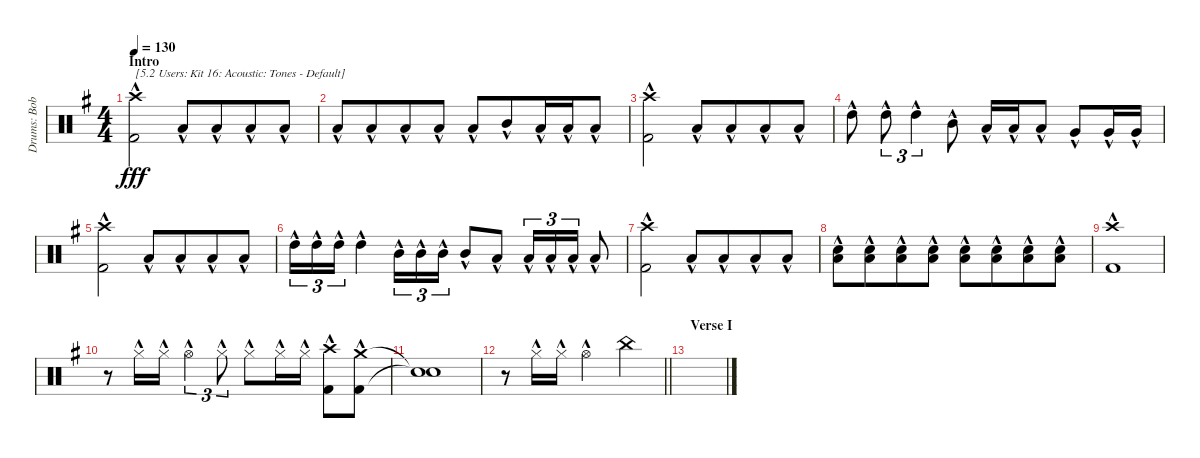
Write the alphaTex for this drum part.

\track ("Drums: Bobby" "Drums: Bob") {instrument percussion}
\staff {score}
\articulation defaults
\ts (4 4)
\section ("" "Intro")
\tempo 130
\clef neutral
\ks g
("Crash high (hit)"{hac} "Kick (hit) 2"{hac}).2{txt "[5.2 Users: Kit 16: Acoustic: Tones - Default]" dy fff} "Low Tom (hit)"{hac}.8 "Low Tom (hit)"{hac}.8{beam merge} "Low Tom (hit)"{hac}.8 "Low Tom (hit)"{hac}.8 |
"Low Tom (hit)"{hac}.8 "Low Tom (hit)"{hac}.8{beam merge} "Low Tom (hit)"{hac}.8 "Low Tom (hit)"{hac}.8 "Low Tom (hit)"{hac}.8 "Mid Tom (hit)"{hac}.8{beam merge} "Low Tom (hit)"{hac}.16 "Low Tom (hit)"{hac}.16 "Low Tom (hit)"{hac}.8 |
("Crash high (hit)"{hac} "Kick (hit) 2"{hac}).2 "Low Tom (hit)"{hac}.8 "Low Tom (hit)"{hac}.8{beam merge} "Low Tom (hit)"{hac}.8 "Low Tom (hit)"{hac}.8 |
"High Tom (hit)"{hac}.8 "High Tom (hit)"{hac}.8{tu (3 2)} "High Tom (hit)"{hac}.4{tu (3 2)} "Mid Tom (hit)"{hac}.8 "Low Tom (hit)"{hac}.16 "Low Tom (hit)"{hac}.16 "Low Tom (hit)"{hac}.8 "Very Low Tom (hit)"{hac}.8 "Very Low Tom (hit)"{hac}.16 "Very Low Tom (hit)"{hac}.16 |
("Crash high (hit)"{hac} "Kick (hit) 2"{hac}).2 "Low Tom (hit)"{hac}.8 "Low Tom (hit)"{hac}.8{beam merge} "Low Tom (hit)"{hac}.8 "Low Tom (hit)"{hac}.8 |
"High Tom (hit)"{hac}.16{tu (3 2)} "High Tom (hit)"{hac}.16{tu (3 2)} "High Tom (hit)"{hac}.16{tu (3 2)} "High Tom (hit)"{hac}.4 "Mid Tom (hit)"{hac}.16{tu (3 2)} "Mid Tom (hit)"{hac}.16{tu (3 2)} "Mid Tom (hit)"{hac}.16{tu (3 2)} "Mid Tom (hit)"{hac}.8 "Low Tom (hit)"{hac}.8 "Low Tom (hit)"{hac}.16{tu (3 2)} "Low Tom (hit)"{hac}.16{tu (3 2)} "Low Tom (hit)"{hac}.16{tu (3 2)} "Low Tom (hit)"{hac}.8 |
("Crash high (hit)"{hac} "Kick (hit) 2"{hac}).2 "Low Tom (hit)"{hac}.8 "Low Tom (hit)"{hac}.8{beam merge} "Low Tom (hit)"{hac}.8 "Low Tom (hit)"{hac}.8 |
("Snare (hit) 2"{hac} "Low Tom (hit)"{hac}).8 ("Snare (hit) 2"{hac} "Low Tom (hit)"{hac}).8{beam merge} ("Snare (hit) 2"{hac} "Low Tom (hit)"{hac}).8 ("Snare (hit) 2"{hac} "Low Tom (hit)"{hac}).8 ("Snare (hit) 2"{hac} "Low Tom (hit)"{hac}).8 ("Snare (hit) 2"{hac} "Low Tom (hit)"{hac}).8{beam merge} ("Snare (hit) 2"{hac} "Low Tom (hit)"{hac}).8 ("Snare (hit) 2"{hac} "Low Tom (hit)"{hac}).8 |
("Crash high (hit)"{hac} "Kick (hit) 2"{hac}).1 |
r.8 "Hi-Hat (closed)"{hac}.16 "Hi-Hat (closed)"{hac}.16 "Hi-Hat (open)"{hac}.4{tu (3 2)} "Hi-Hat (closed)"{hac}.8{tu (3 2)} "Hi-Hat (closed)"{hac}.8 "Hi-Hat (closed)"{hac}.16 "Hi-Hat (closed)"{hac}.16 ("Crash high (hit)"{hac} "Kick (hit) 2"{hac}).8 ("Crash medium (hit)"{hac} "Kick (hit) 2"{hac}).8 |
("Snare (hit)"{t} "Snare (hit)"{t}).1 |
\barLineRight lightlight
r.8 "Hi-Hat (closed)"{hac}.16 "Hi-Hat (closed)"{hac}.16 "Hi-Hat (open)"{hac}.2 "China (hit)".4 |
\section ("" "Verse I")
